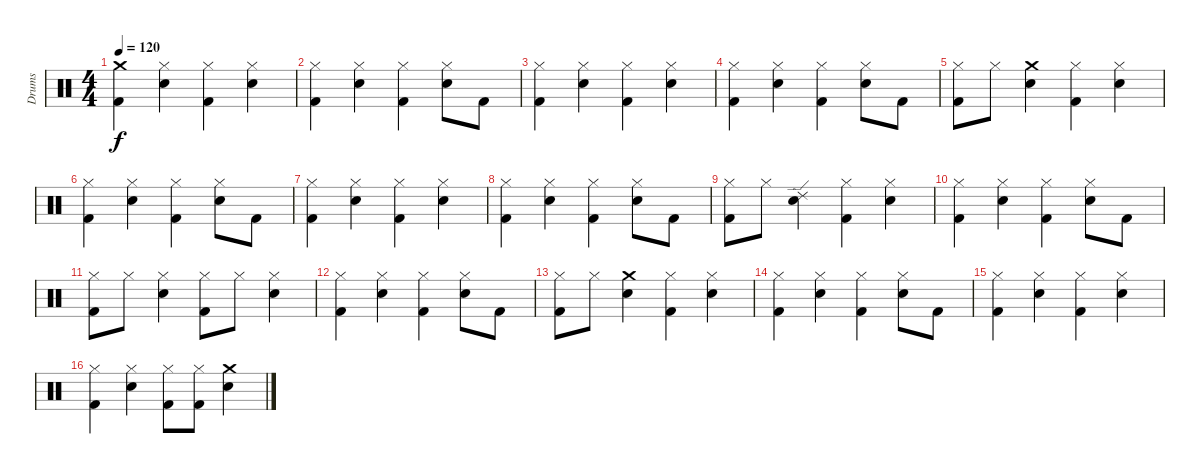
\track ("Drums" "Drums") {instrument percussion}
\staff {score}
\articulation defaults
\ts (4 4)
\tempo 120
\clef neutral
\ks c
("Kick (hit) 2" "Crash medium (hit)").4{dy f} ("Hi-Hat (closed)" "Snare (hit) 2").4 ("Hi-Hat (closed)" "Kick (hit) 2").4 ("Snare (hit) 2" "Hi-Hat (closed)").4 |
("Hi-Hat (closed)" "Kick (hit) 2").4 ("Hi-Hat (closed)" "Snare (hit) 2").4 ("Hi-Hat (closed)" "Kick (hit) 2").4 ("Snare (hit) 2" "Hi-Hat (closed)").8 "Kick (hit) 2".8 |
("Kick (hit) 2" "Hi-Hat (closed)").4 ("Snare (hit) 2" "Hi-Hat (closed)").4 ("Kick (hit) 2" "Hi-Hat (closed)").4 ("Snare (hit) 2" "Hi-Hat (closed)").4 |
("Hi-Hat (closed)" "Kick (hit) 2").4 ("Hi-Hat (closed)" "Snare (hit) 2").4 ("Hi-Hat (closed)" "Kick (hit) 2").4 ("Snare (hit) 2" "Hi-Hat (closed)").8 "Kick (hit) 2".8 |
("Hi-Hat (closed)" "Kick (hit) 2").8 "Hi-Hat (closed)".8 ("Snare (hit) 2" "Crash medium (hit)").4 ("Hi-Hat (closed)" "Kick (hit) 2").4 ("Hi-Hat (closed)" "Snare (hit) 2").4 |
("Kick (hit) 2" "Hi-Hat (closed)").4 ("Snare (hit) 2" "Hi-Hat (closed)").4 ("Kick (hit) 2" "Hi-Hat (closed)").4 ("Snare (hit) 2" "Hi-Hat (closed)").8 "Kick (hit) 2".8 |
("Hi-Hat (closed)" "Kick (hit) 2").4 ("Snare (hit) 2" "Hi-Hat (closed)").4 ("Hi-Hat (closed)" "Kick (hit) 2").4 ("Snare (hit) 2" "Hi-Hat (closed)").4 |
("Hi-Hat (closed)" "Kick (hit) 2").4 ("Snare (hit) 2" "Hi-Hat (closed)").4 ("Hi-Hat (closed)" "Kick (hit) 2").4 ("Snare (hit) 2" "Hi-Hat (closed)").8 "Kick (hit) 2".8 |
("Kick (hit) 2" "Hi-Hat (closed)").8 "Hi-Hat (closed)".8 ("Ride (edge) 2" "Snare (hit) 2").4 ("Hi-Hat (closed)" "Kick (hit) 2").4 ("Snare (hit) 2" "Hi-Hat (closed)").4 |
("Hi-Hat (closed)" "Kick (hit) 2").4 ("Hi-Hat (closed)" "Snare (hit) 2").4 ("Hi-Hat (closed)" "Kick (hit) 2").4 ("Snare (hit) 2" "Hi-Hat (closed)").8 "Kick (hit) 2".8 |
("Kick (hit) 2" "Hi-Hat (closed)").8 "Hi-Hat (closed)".8 ("Hi-Hat (closed)" "Snare (hit) 2").4 ("Kick (hit) 2" "Hi-Hat (closed)").8 "Hi-Hat (closed)".8 ("Snare (hit) 2" "Hi-Hat (closed)").4 |
("Kick (hit) 2" "Hi-Hat (closed)").4 ("Snare (hit) 2" "Hi-Hat (closed)").4 ("Hi-Hat (closed)" "Kick (hit) 2").4 ("Hi-Hat (closed)" "Snare (hit) 2").8 "Kick (hit) 2".8 |
("Kick (hit) 2" "Hi-Hat (closed)").8 "Hi-Hat (closed)".8 ("Crash medium (hit)" "Snare (hit) 2").4 ("Kick (hit) 2" "Hi-Hat (closed)").4 ("Snare (hit) 2" "Hi-Hat (closed)").4 |
("Hi-Hat (closed)" "Kick (hit) 2").4 ("Snare (hit) 2" "Hi-Hat (closed)").4 ("Hi-Hat (closed)" "Kick (hit) 2").4 ("Snare (hit) 2" "Hi-Hat (closed)").8 "Kick (hit) 2".8 |
("Kick (hit) 2" "Hi-Hat (closed)").4 ("Snare (hit) 2" "Hi-Hat (closed)").4 ("Kick (hit) 2" "Hi-Hat (closed)").4 ("Snare (hit) 2" "Hi-Hat (closed)").4 |
("Hi-Hat (closed)" "Kick (hit) 2").4 ("Snare (hit) 2" "Hi-Hat (closed)").4 ("Hi-Hat (closed)" "Kick (hit) 2").8 ("Hi-Hat (closed)" "Kick (hit) 2").8 ("Crash medium (hit)" "Snare (hit) 2").4
